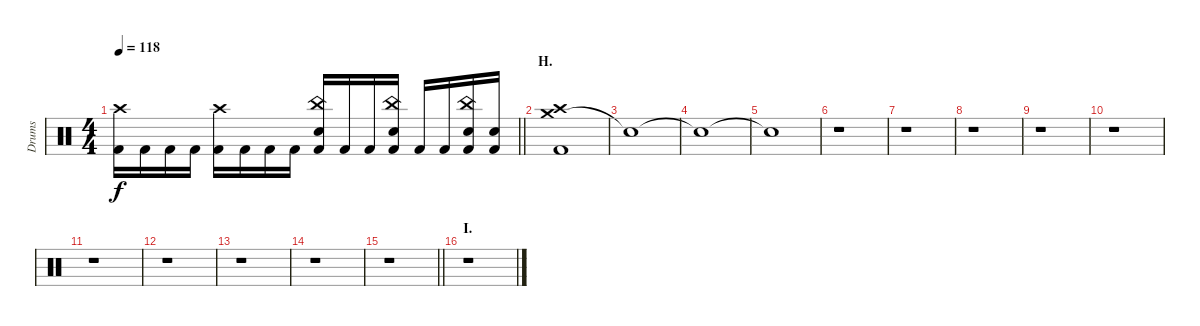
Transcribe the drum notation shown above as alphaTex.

\track ("Drums" "Drums") {instrument percussion}
\staff {score}
\articulation defaults
\ts (4 4)
\tempo 118
\clef neutral
\barLineRight lightlight
\ks c
("Crash high (hit)" "Kick (hit) 2").16{dy f} "Kick (hit) 2".16 "Kick (hit) 2".16 "Kick (hit) 2".16 ("Crash high (hit)" "Kick (hit) 2").16 "Kick (hit) 2".16 "Kick (hit) 2".16 "Kick (hit) 2".16 ("China (hit)" "Electric Snare (hit)" "Kick (hit) 2").16 "Kick (hit) 2".16 "Kick (hit) 2".16 ("China (hit)" "Electric Snare (hit)" "Kick (hit) 2").16 "Kick (hit) 2".16 "Kick (hit) 2".16 ("China (hit)" "Electric Snare (hit)" "Kick (hit) 2").16 ("Electric Snare (hit)" "Kick (hit) 2").16 |
\section ("" "H.")
("Crash medium (hit)" "Crash high (hit)" "Kick (hit) 2").1 |
"Snare (hit)"{t}.1 |
"Snare (hit)"{t}.1 |
"Snare (hit)"{t}.1 |
r.1 |
r.1 |
r.1 |
r.1 |
r.1 |
r.1 |
r.1 |
r.1 |
r.1 |
\barLineRight lightlight
r.1 |
\section ("" "I.")
r.1
